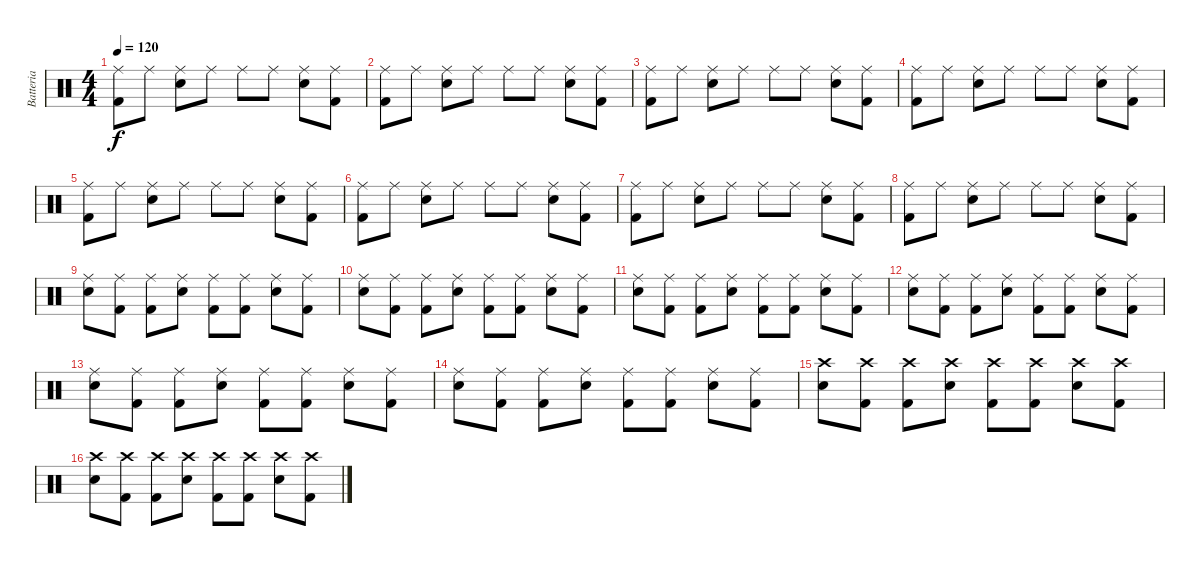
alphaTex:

\track ("Batteria" "Batteria") {instrument percussion}
\staff {score}
\articulation defaults
\ts (4 4)
\tempo 120
\clef neutral
\ks c
("Kick (hit) 2" "Ride (middle)").8{dy f} "Ride (middle)".8 ("Ride (middle)" "Snare (hit) 2").8 "Ride (middle)".8 "Ride (middle)".8 "Ride (middle)".8 ("Snare (hit) 2" "Ride (middle)").8 ("Ride (middle)" "Kick (hit) 2").8 |
("Kick (hit) 2" "Ride (middle)").8 "Ride (middle)".8 ("Ride (middle)" "Snare (hit) 2").8 "Ride (middle)".8 "Ride (middle)".8 "Ride (middle)".8 ("Snare (hit) 2" "Ride (middle)").8 ("Ride (middle)" "Kick (hit) 2").8 |
("Kick (hit) 2" "Ride (middle)").8 "Ride (middle)".8 ("Ride (middle)" "Snare (hit) 2").8 "Ride (middle)".8 "Ride (middle)".8 "Ride (middle)".8 ("Snare (hit) 2" "Ride (middle)").8 ("Ride (middle)" "Kick (hit) 2").8 |
("Kick (hit) 2" "Ride (middle)").8 "Ride (middle)".8 ("Ride (middle)" "Snare (hit) 2").8 "Ride (middle)".8 "Ride (middle)".8 "Ride (middle)".8 ("Snare (hit) 2" "Ride (middle)").8 ("Ride (middle)" "Kick (hit) 2").8 |
("Kick (hit) 2" "Ride (middle)").8 "Ride (middle)".8 ("Ride (middle)" "Snare (hit) 2").8 "Ride (middle)".8 "Ride (middle)".8 "Ride (middle)".8 ("Snare (hit) 2" "Ride (middle)").8 ("Ride (middle)" "Kick (hit) 2").8 |
("Kick (hit) 2" "Ride (middle)").8 "Ride (middle)".8 ("Ride (middle)" "Snare (hit) 2").8 "Ride (middle)".8 "Ride (middle)".8 "Ride (middle)".8 ("Snare (hit) 2" "Ride (middle)").8 ("Ride (middle)" "Kick (hit) 2").8 |
("Kick (hit) 2" "Ride (middle)").8 "Ride (middle)".8 ("Ride (middle)" "Snare (hit) 2").8 "Ride (middle)".8 "Ride (middle)".8 "Ride (middle)".8 ("Snare (hit) 2" "Ride (middle)").8 ("Ride (middle)" "Kick (hit) 2").8 |
("Kick (hit) 2" "Ride (middle)").8 "Ride (middle)".8 ("Ride (middle)" "Snare (hit) 2").8 "Ride (middle)".8 "Ride (middle)".8 "Ride (middle)".8 ("Snare (hit) 2" "Ride (middle)").8 ("Ride (middle)" "Kick (hit) 2").8 |
("Snare (hit) 2" "Ride (middle)").8 ("Kick (hit) 2" "Ride (middle)").8 ("Ride (middle)" "Kick (hit) 2").8 ("Snare (hit) 2" "Ride (middle)").8 ("Kick (hit) 2" "Ride (middle)").8 ("Kick (hit) 2" "Ride (middle)").8 ("Snare (hit) 2" "Ride (middle)").8 ("Ride (middle)" "Kick (hit) 2").8 |
("Snare (hit) 2" "Ride (middle)").8 ("Kick (hit) 2" "Ride (middle)").8 ("Ride (middle)" "Kick (hit) 2").8 ("Snare (hit) 2" "Ride (middle)").8 ("Kick (hit) 2" "Ride (middle)").8 ("Kick (hit) 2" "Ride (middle)").8 ("Snare (hit) 2" "Ride (middle)").8 ("Ride (middle)" "Kick (hit) 2").8 |
("Snare (hit) 2" "Ride (middle)").8 ("Kick (hit) 2" "Ride (middle)").8 ("Ride (middle)" "Kick (hit) 2").8 ("Snare (hit) 2" "Ride (middle)").8 ("Kick (hit) 2" "Ride (middle)").8 ("Kick (hit) 2" "Ride (middle)").8 ("Snare (hit) 2" "Ride (middle)").8 ("Ride (middle)" "Kick (hit) 2").8 |
("Snare (hit) 2" "Ride (middle)").8 ("Kick (hit) 2" "Ride (middle)").8 ("Ride (middle)" "Kick (hit) 2").8 ("Snare (hit) 2" "Ride (middle)").8 ("Kick (hit) 2" "Ride (middle)").8 ("Kick (hit) 2" "Ride (middle)").8 ("Snare (hit) 2" "Ride (middle)").8 ("Ride (middle)" "Kick (hit) 2").8 |
("Snare (hit) 2" "Ride (middle)").8 ("Kick (hit) 2" "Ride (middle)").8 ("Ride (middle)" "Kick (hit) 2").8 ("Snare (hit) 2" "Ride (middle)").8 ("Kick (hit) 2" "Ride (middle)").8 ("Kick (hit) 2" "Ride (middle)").8 ("Snare (hit) 2" "Ride (middle)").8 ("Ride (middle)" "Kick (hit) 2").8 |
("Snare (hit) 2" "Ride (middle)").8 ("Kick (hit) 2" "Ride (middle)").8 ("Ride (middle)" "Kick (hit) 2").8 ("Snare (hit) 2" "Ride (middle)").8 ("Kick (hit) 2" "Ride (middle)").8 ("Kick (hit) 2" "Ride (middle)").8 ("Snare (hit) 2" "Ride (middle)").8 ("Ride (middle)" "Kick (hit) 2").8 |
("Snare (hit) 2" "Crash high (hit)").8 ("Kick (hit) 2" "Crash high (hit)").8 ("Crash high (hit)" "Kick (hit) 2").8 ("Snare (hit) 2" "Crash high (hit)").8 ("Kick (hit) 2" "Crash high (hit)").8 ("Kick (hit) 2" "Crash high (hit)").8 ("Snare (hit) 2" "Crash high (hit)").8 ("Crash high (hit)" "Kick (hit) 2").8 |
("Snare (hit) 2" "Crash high (hit)").8 ("Kick (hit) 2" "Crash high (hit)").8 ("Crash high (hit)" "Kick (hit) 2").8 ("Snare (hit) 2" "Crash high (hit)").8 ("Kick (hit) 2" "Crash high (hit)").8 ("Kick (hit) 2" "Crash high (hit)").8 ("Snare (hit) 2" "Crash high (hit)").8 ("Crash high (hit)" "Kick (hit) 2").8
